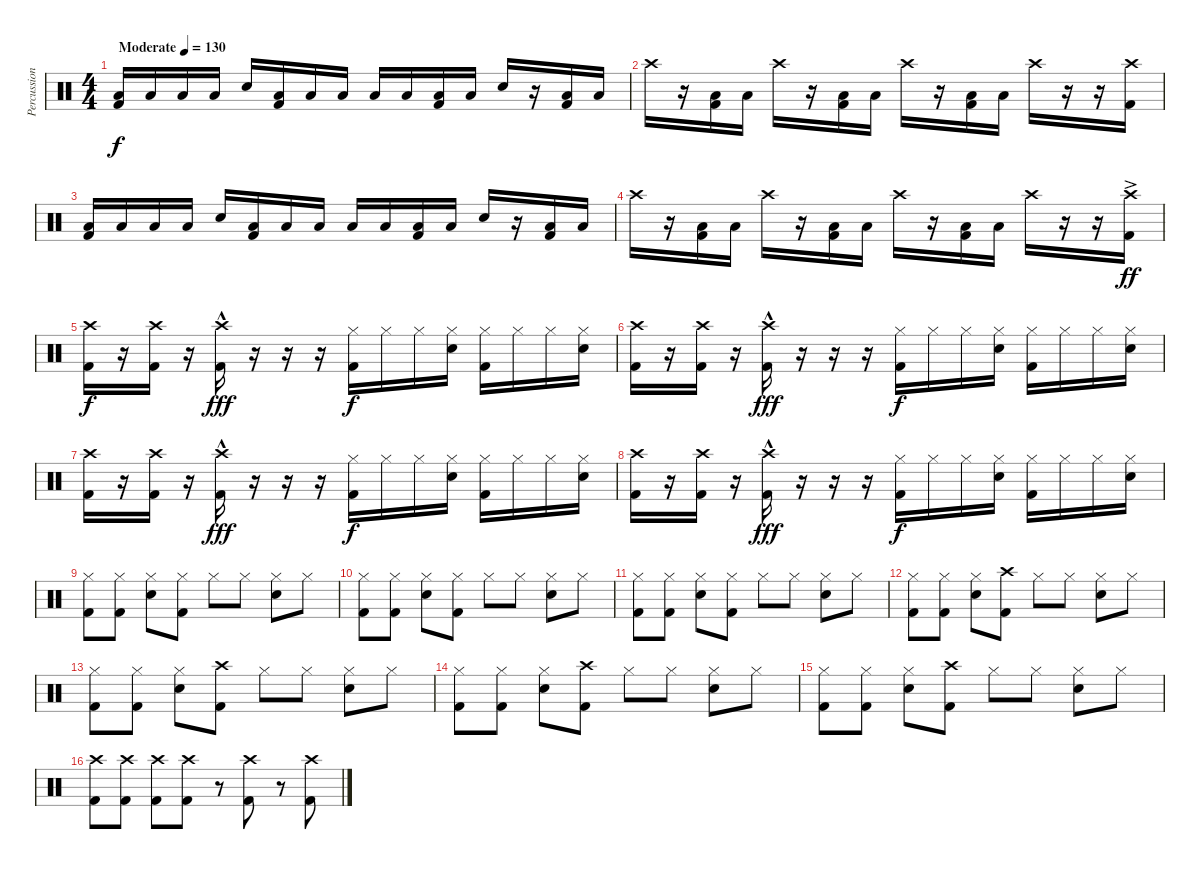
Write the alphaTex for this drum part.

\track ("Percussion" "Percussion") {instrument percussion}
\staff {score}
\articulation defaults
\ts (4 4)
\tempo (130 "Moderate")
\clef neutral
\ks c
("Low Tom (hit)" "Kick (hit) 2").16{dy f} "Low Tom (hit)".16 "Low Tom (hit)".16 "Low Tom (hit)".16 "Snare (hit) 2".16 ("Low Tom (hit)" "Kick (hit) 2").16 "Low Tom (hit)".16 "Low Tom (hit)".16 "Low Tom (hit)".16 "Low Tom (hit)".16 ("Low Tom (hit)" "Kick (hit) 2").16 "Low Tom (hit)".16 "Snare (hit) 2".16 r.16 ("Low Tom (hit)" "Kick (hit) 2").16 "Low Tom (hit)".16 |
"Crash high (hit)".16 r.16 ("Low Tom (hit)" "Kick (hit) 2").16 "Low Tom (hit)".16 "Crash high (hit)".16 r.16 ("Low Tom (hit)" "Kick (hit) 2").16 "Low Tom (hit)".16 "Crash high (hit)".16 r.16 ("Low Tom (hit)" "Kick (hit) 2").16 "Low Tom (hit)".16 "Crash high (hit)".16 r.16 r.16 ("Crash high (hit)" "Kick (hit) 2").16 |
("Low Tom (hit)" "Kick (hit) 2").16 "Low Tom (hit)".16 "Low Tom (hit)".16 "Low Tom (hit)".16 "Snare (hit) 2".16 ("Low Tom (hit)" "Kick (hit) 2").16 "Low Tom (hit)".16 "Low Tom (hit)".16 "Low Tom (hit)".16 "Low Tom (hit)".16 ("Low Tom (hit)" "Kick (hit) 2").16 "Low Tom (hit)".16 "Snare (hit) 2".16 r.16 ("Low Tom (hit)" "Kick (hit) 2").16 "Low Tom (hit)".16 |
"Crash high (hit)".16 r.16 ("Low Tom (hit)" "Kick (hit) 2").16 "Low Tom (hit)".16 "Crash high (hit)".16 r.16 ("Low Tom (hit)" "Kick (hit) 2").16 "Low Tom (hit)".16 "Crash high (hit)".16 r.16 ("Low Tom (hit)" "Kick (hit) 2").16 "Low Tom (hit)".16 "Crash high (hit)".16 r.16 r.16 ("Crash high (hit)"{ac} "Kick (hit) 2"{ac}).16{dy ff} |
("Crash high (hit)" "Kick (hit) 2").16{dy f} r.16 ("Kick (hit) 2" "Crash high (hit)").16 r.16 ("Crash high (hit)"{hac} "Kick (hit) 2"{hac}).16{dy fff} r.16 r.16 r.16 ("Hi-Hat (closed)" "Kick (hit) 2").16{dy f} "Hi-Hat (closed)".16 "Hi-Hat (closed)".16 ("Hi-Hat (closed)" "Snare (hit) 2").16 ("Hi-Hat (closed)" "Kick (hit) 2").16 "Hi-Hat (closed)".16 "Hi-Hat (closed)".16 ("Hi-Hat (closed)" "Snare (hit) 2").16 |
("Crash high (hit)" "Kick (hit) 2").16 r.16 ("Kick (hit) 2" "Crash high (hit)").16 r.16 ("Crash high (hit)"{hac} "Kick (hit) 2"{hac}).16{dy fff} r.16 r.16 r.16 ("Hi-Hat (closed)" "Kick (hit) 2").16{dy f} "Hi-Hat (closed)".16 "Hi-Hat (closed)".16 ("Hi-Hat (closed)" "Snare (hit) 2").16 ("Hi-Hat (closed)" "Kick (hit) 2").16 "Hi-Hat (closed)".16 "Hi-Hat (closed)".16 ("Hi-Hat (closed)" "Snare (hit) 2").16 |
("Crash high (hit)" "Kick (hit) 2").16 r.16 ("Kick (hit) 2" "Crash high (hit)").16 r.16 ("Crash high (hit)"{hac} "Kick (hit) 2"{hac}).16{dy fff} r.16 r.16 r.16 ("Hi-Hat (closed)" "Kick (hit) 2").16{dy f} "Hi-Hat (closed)".16 "Hi-Hat (closed)".16 ("Hi-Hat (closed)" "Snare (hit) 2").16 ("Hi-Hat (closed)" "Kick (hit) 2").16 "Hi-Hat (closed)".16 "Hi-Hat (closed)".16 ("Hi-Hat (closed)" "Snare (hit) 2").16 |
("Crash high (hit)" "Kick (hit) 2").16 r.16 ("Kick (hit) 2" "Crash high (hit)").16 r.16 ("Crash high (hit)"{hac} "Kick (hit) 2"{hac}).16{dy fff} r.16 r.16 r.16 ("Hi-Hat (closed)" "Kick (hit) 2").16{dy f} "Hi-Hat (closed)".16 "Hi-Hat (closed)".16 ("Hi-Hat (closed)" "Snare (hit) 2").16 ("Hi-Hat (closed)" "Kick (hit) 2").16 "Hi-Hat (closed)".16 "Hi-Hat (closed)".16 ("Hi-Hat (closed)" "Snare (hit) 2").16 |
("Hi-Hat (closed)" "Kick (hit) 2").8 ("Hi-Hat (closed)" "Kick (hit) 2").8 ("Hi-Hat (closed)" "Snare (hit) 2").8 ("Hi-Hat (closed)" "Kick (hit) 2").8 "Hi-Hat (closed)".8 "Hi-Hat (closed)".8 ("Hi-Hat (closed)" "Snare (hit) 2").8 "Hi-Hat (closed)".8 |
("Hi-Hat (closed)" "Kick (hit) 2").8 ("Hi-Hat (closed)" "Kick (hit) 2").8 ("Hi-Hat (closed)" "Snare (hit) 2").8 ("Hi-Hat (closed)" "Kick (hit) 2").8 "Hi-Hat (closed)".8 "Hi-Hat (closed)".8 ("Hi-Hat (closed)" "Snare (hit) 2").8 "Hi-Hat (closed)".8 |
("Hi-Hat (closed)" "Kick (hit) 2").8 ("Hi-Hat (closed)" "Kick (hit) 2").8 ("Hi-Hat (closed)" "Snare (hit) 2").8 ("Hi-Hat (closed)" "Kick (hit) 2").8 "Hi-Hat (closed)".8 "Hi-Hat (closed)".8 ("Hi-Hat (closed)" "Snare (hit) 2").8 "Hi-Hat (closed)".8 |
("Hi-Hat (closed)" "Kick (hit) 2").8 ("Hi-Hat (closed)" "Kick (hit) 2").8 ("Hi-Hat (closed)" "Snare (hit) 2").8 ("Crash high (hit)" "Kick (hit) 2").8 "Hi-Hat (closed)".8 "Hi-Hat (closed)".8 ("Hi-Hat (closed)" "Snare (hit) 2").8 "Hi-Hat (closed)".8 |
("Hi-Hat (closed)" "Kick (hit) 2").8 ("Hi-Hat (closed)" "Kick (hit) 2").8 ("Hi-Hat (closed)" "Snare (hit) 2").8 ("Crash high (hit)" "Kick (hit) 2").8 "Hi-Hat (closed)".8 "Hi-Hat (closed)".8 ("Hi-Hat (closed)" "Snare (hit) 2").8 "Hi-Hat (closed)".8 |
("Hi-Hat (closed)" "Kick (hit) 2").8 ("Hi-Hat (closed)" "Kick (hit) 2").8 ("Hi-Hat (closed)" "Snare (hit) 2").8 ("Crash high (hit)" "Kick (hit) 2").8 "Hi-Hat (closed)".8 "Hi-Hat (closed)".8 ("Hi-Hat (closed)" "Snare (hit) 2").8 "Hi-Hat (closed)".8 |
("Hi-Hat (closed)" "Kick (hit) 2").8 ("Hi-Hat (closed)" "Kick (hit) 2").8 ("Hi-Hat (closed)" "Snare (hit) 2").8 ("Crash high (hit)" "Kick (hit) 2").8 "Hi-Hat (closed)".8 "Hi-Hat (closed)".8 ("Hi-Hat (closed)" "Snare (hit) 2").8 "Hi-Hat (closed)".8 |
("Crash high (hit)" "Kick (hit) 2").8 ("Crash high (hit)" "Kick (hit) 2").8 ("Crash high (hit)" "Kick (hit) 2").8 ("Crash high (hit)" "Kick (hit) 2").8 r.8 ("Crash high (hit)" "Kick (hit) 2").8 r.8 ("Crash high (hit)" "Kick (hit) 2").8
